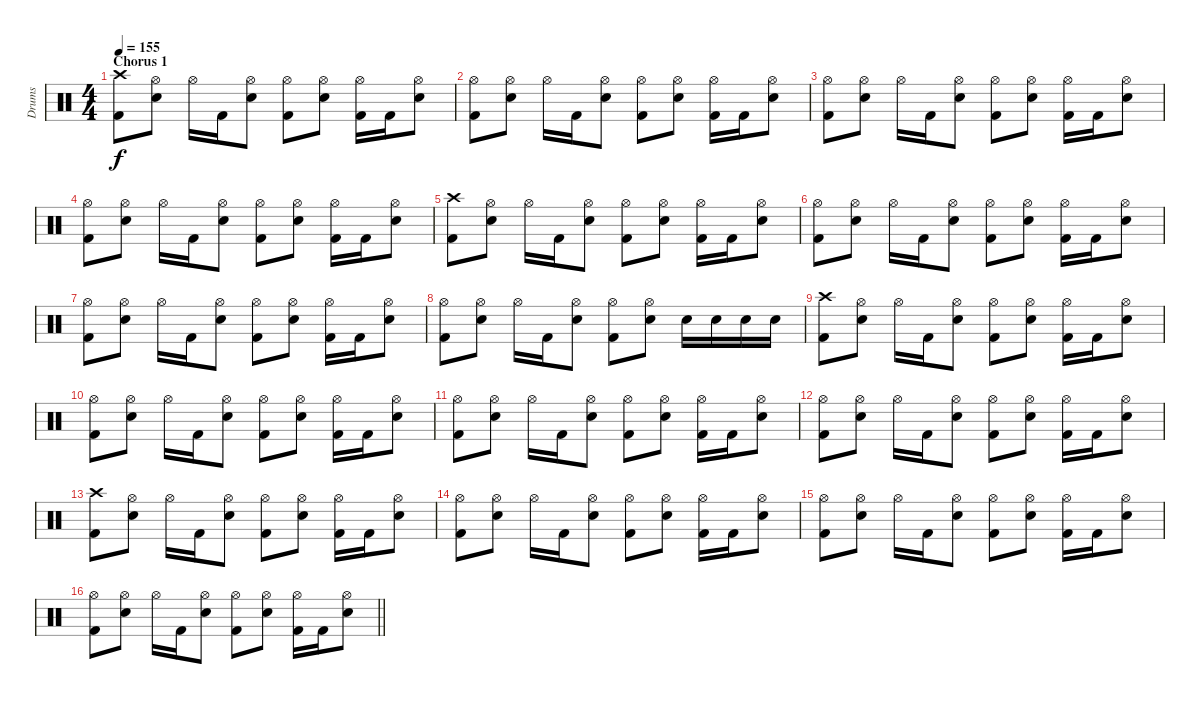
\track ("Drums" "Drums") {instrument percussion}
\staff {score}
\articulation defaults
\ts (4 4)
\section ("" "Chorus 1")
\tempo 155
\clef neutral
\ks c
("Crash high (hit)" "Kick (hit) 2").8{dy f} ("Hi-Hat (open)" "Electric Snare (hit)").8 "Hi-Hat (open)".16 "Kick (hit) 2".16 ("Hi-Hat (open)" "Electric Snare (hit)").8 ("Hi-Hat (open)" "Kick (hit) 2").8 ("Hi-Hat (open)" "Electric Snare (hit)").8 ("Hi-Hat (open)" "Kick (hit) 2").16 "Kick (hit) 2".16 ("Hi-Hat (open)" "Electric Snare (hit)").8 |
("Hi-Hat (open)" "Kick (hit) 2").8 ("Hi-Hat (open)" "Electric Snare (hit)").8 "Hi-Hat (open)".16 "Kick (hit) 2".16 ("Hi-Hat (open)" "Electric Snare (hit)").8 ("Hi-Hat (open)" "Kick (hit) 2").8 ("Hi-Hat (open)" "Electric Snare (hit)").8 ("Hi-Hat (open)" "Kick (hit) 2").16 "Kick (hit) 2".16 ("Hi-Hat (open)" "Electric Snare (hit)").8 |
("Hi-Hat (open)" "Kick (hit) 2").8 ("Hi-Hat (open)" "Electric Snare (hit)").8 "Hi-Hat (open)".16 "Kick (hit) 2".16 ("Hi-Hat (open)" "Electric Snare (hit)").8 ("Hi-Hat (open)" "Kick (hit) 2").8 ("Hi-Hat (open)" "Electric Snare (hit)").8 ("Hi-Hat (open)" "Kick (hit) 2").16 "Kick (hit) 2".16 ("Hi-Hat (open)" "Electric Snare (hit)").8 |
("Hi-Hat (open)" "Kick (hit) 2").8 ("Hi-Hat (open)" "Electric Snare (hit)").8 "Hi-Hat (open)".16 "Kick (hit) 2".16 ("Hi-Hat (open)" "Electric Snare (hit)").8 ("Hi-Hat (open)" "Kick (hit) 2").8 ("Hi-Hat (open)" "Electric Snare (hit)").8 ("Hi-Hat (open)" "Kick (hit) 2").16 "Kick (hit) 2".16 ("Hi-Hat (open)" "Electric Snare (hit)").8 |
("Crash high (hit)" "Kick (hit) 2").8 ("Hi-Hat (open)" "Electric Snare (hit)").8 "Hi-Hat (open)".16 "Kick (hit) 2".16 ("Hi-Hat (open)" "Electric Snare (hit)").8 ("Hi-Hat (open)" "Kick (hit) 2").8 ("Hi-Hat (open)" "Electric Snare (hit)").8 ("Hi-Hat (open)" "Kick (hit) 2").16 "Kick (hit) 2".16 ("Hi-Hat (open)" "Electric Snare (hit)").8 |
("Hi-Hat (open)" "Kick (hit) 2").8 ("Hi-Hat (open)" "Electric Snare (hit)").8 "Hi-Hat (open)".16 "Kick (hit) 2".16 ("Hi-Hat (open)" "Electric Snare (hit)").8 ("Hi-Hat (open)" "Kick (hit) 2").8 ("Hi-Hat (open)" "Electric Snare (hit)").8 ("Hi-Hat (open)" "Kick (hit) 2").16 "Kick (hit) 2".16 ("Hi-Hat (open)" "Electric Snare (hit)").8 |
("Hi-Hat (open)" "Kick (hit) 2").8 ("Hi-Hat (open)" "Electric Snare (hit)").8 "Hi-Hat (open)".16 "Kick (hit) 2".16 ("Hi-Hat (open)" "Electric Snare (hit)").8 ("Hi-Hat (open)" "Kick (hit) 2").8 ("Hi-Hat (open)" "Electric Snare (hit)").8 ("Hi-Hat (open)" "Kick (hit) 2").16 "Kick (hit) 2".16 ("Hi-Hat (open)" "Electric Snare (hit)").8 |
("Hi-Hat (open)" "Kick (hit) 2").8 ("Hi-Hat (open)" "Electric Snare (hit)").8 "Hi-Hat (open)".16 "Kick (hit) 2".16 ("Hi-Hat (open)" "Electric Snare (hit)").8 ("Hi-Hat (open)" "Kick (hit) 2").8 ("Hi-Hat (open)" "Electric Snare (hit)").8 "Electric Snare (hit)".16 "Electric Snare (hit)".16 "Electric Snare (hit)".16 "Electric Snare (hit)".16 |
("Crash high (hit)" "Kick (hit) 2").8 ("Hi-Hat (open)" "Electric Snare (hit)").8 "Hi-Hat (open)".16 "Kick (hit) 2".16 ("Hi-Hat (open)" "Electric Snare (hit)").8 ("Hi-Hat (open)" "Kick (hit) 2").8 ("Hi-Hat (open)" "Electric Snare (hit)").8 ("Hi-Hat (open)" "Kick (hit) 2").16 "Kick (hit) 2".16 ("Hi-Hat (open)" "Electric Snare (hit)").8 |
("Hi-Hat (open)" "Kick (hit) 2").8 ("Hi-Hat (open)" "Electric Snare (hit)").8 "Hi-Hat (open)".16 "Kick (hit) 2".16 ("Hi-Hat (open)" "Electric Snare (hit)").8 ("Hi-Hat (open)" "Kick (hit) 2").8 ("Hi-Hat (open)" "Electric Snare (hit)").8 ("Hi-Hat (open)" "Kick (hit) 2").16 "Kick (hit) 2".16 ("Hi-Hat (open)" "Electric Snare (hit)").8 |
("Hi-Hat (open)" "Kick (hit) 2").8 ("Hi-Hat (open)" "Electric Snare (hit)").8 "Hi-Hat (open)".16 "Kick (hit) 2".16 ("Hi-Hat (open)" "Electric Snare (hit)").8 ("Hi-Hat (open)" "Kick (hit) 2").8 ("Hi-Hat (open)" "Electric Snare (hit)").8 ("Hi-Hat (open)" "Kick (hit) 2").16 "Kick (hit) 2".16 ("Hi-Hat (open)" "Electric Snare (hit)").8 |
("Hi-Hat (open)" "Kick (hit) 2").8 ("Hi-Hat (open)" "Electric Snare (hit)").8 "Hi-Hat (open)".16 "Kick (hit) 2".16 ("Hi-Hat (open)" "Electric Snare (hit)").8 ("Hi-Hat (open)" "Kick (hit) 2").8 ("Hi-Hat (open)" "Electric Snare (hit)").8 ("Hi-Hat (open)" "Kick (hit) 2").16 "Kick (hit) 2".16 ("Hi-Hat (open)" "Electric Snare (hit)").8 |
("Crash high (hit)" "Kick (hit) 2").8 ("Hi-Hat (open)" "Electric Snare (hit)").8 "Hi-Hat (open)".16 "Kick (hit) 2".16 ("Hi-Hat (open)" "Electric Snare (hit)").8 ("Hi-Hat (open)" "Kick (hit) 2").8 ("Hi-Hat (open)" "Electric Snare (hit)").8 ("Hi-Hat (open)" "Kick (hit) 2").16 "Kick (hit) 2".16 ("Hi-Hat (open)" "Electric Snare (hit)").8 |
("Hi-Hat (open)" "Kick (hit) 2").8 ("Hi-Hat (open)" "Electric Snare (hit)").8 "Hi-Hat (open)".16 "Kick (hit) 2".16 ("Hi-Hat (open)" "Electric Snare (hit)").8 ("Hi-Hat (open)" "Kick (hit) 2").8 ("Hi-Hat (open)" "Electric Snare (hit)").8 ("Hi-Hat (open)" "Kick (hit) 2").16 "Kick (hit) 2".16 ("Hi-Hat (open)" "Electric Snare (hit)").8 |
("Hi-Hat (open)" "Kick (hit) 2").8 ("Hi-Hat (open)" "Electric Snare (hit)").8 "Hi-Hat (open)".16 "Kick (hit) 2".16 ("Hi-Hat (open)" "Electric Snare (hit)").8 ("Hi-Hat (open)" "Kick (hit) 2").8 ("Hi-Hat (open)" "Electric Snare (hit)").8 ("Hi-Hat (open)" "Kick (hit) 2").16 "Kick (hit) 2".16 ("Hi-Hat (open)" "Electric Snare (hit)").8 |
\barLineRight lightlight
("Hi-Hat (open)" "Kick (hit) 2").8 ("Hi-Hat (open)" "Electric Snare (hit)").8 "Hi-Hat (open)".16 "Kick (hit) 2".16 ("Hi-Hat (open)" "Electric Snare (hit)").8 ("Hi-Hat (open)" "Kick (hit) 2").8 ("Hi-Hat (open)" "Electric Snare (hit)").8 ("Hi-Hat (open)" "Kick (hit) 2").16 "Kick (hit) 2".16 ("Hi-Hat (open)" "Electric Snare (hit)").8
